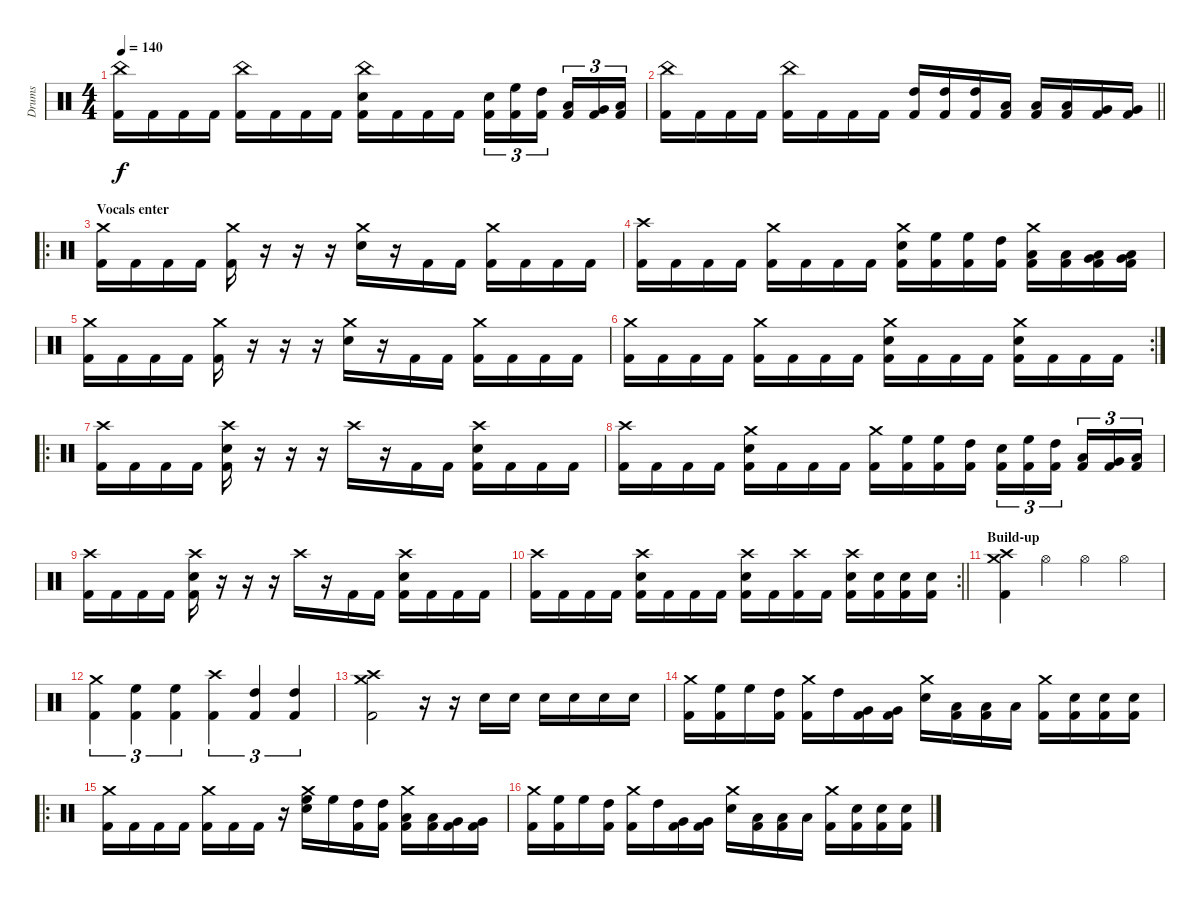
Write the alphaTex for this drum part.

\track ("Drums" "Drums") {mute instrument percussion}
\staff {score}
\articulation defaults
\ts (4 4)
\tempo 140
\clef neutral
\ks c
("China (hit)" "Kick (hit) 2").16{dy f} "Kick (hit) 2".16 "Kick (hit) 2".16 "Kick (hit) 2".16 ("China (hit)" "Kick (hit) 2").16 "Kick (hit) 2".16 "Kick (hit) 2".16 "Kick (hit) 2".16 ("China (hit)" "Electric Snare (hit)" "Kick (hit) 2").16 "Kick (hit) 2".16 "Kick (hit) 2".16 "Kick (hit) 2".16 ("Electric Snare (hit)" "Kick (hit) 2").16{tu (3 2)} ("High Floor Tom (hit)" "Kick (hit) 2").16{tu (3 2)} ("High Tom (hit)" "Kick (hit) 2").16{tu (3 2) beam splitsecondary} ("Low Tom (hit)" "Kick (hit) 2").16{tu (3 2)} ("Very Low Tom (hit)" "Kick (hit) 2").16{tu (3 2)} ("Low Floor Tom (hit)" "Kick (hit) 2").16{tu (3 2)} |
\barLineRight lightlight
("China (hit)" "Kick (hit) 2").16 "Kick (hit) 2".16 "Kick (hit) 2".16 "Kick (hit) 2".16 ("China (hit)" "Kick (hit) 2").16 "Kick (hit) 2".16 "Kick (hit) 2".16 "Kick (hit) 2".16 ("High Tom (hit)" "Kick (hit) 2").16 ("High Tom (hit)" "Kick (hit) 2").16 ("High Tom (hit)" "Kick (hit) 2").16 ("Low Tom (hit)" "Kick (hit) 2").16 ("Low Tom (hit)" "Kick (hit) 2").16 ("Low Tom (hit)" "Kick (hit) 2").16 ("Very Low Tom (hit)" "Kick (hit) 2").16 ("Very Low Tom (hit)" "Kick (hit) 2").16 |
\ro
\section ("" "Vocals enter")
("Crash medium (hit)" "Kick (hit) 2").16 "Kick (hit) 2".16 "Kick (hit) 2".16 "Kick (hit) 2".16 ("Crash medium (hit)" "Kick (hit) 2").16 r.16 r.16 r.16 ("Crash medium (hit)" "Electric Snare (hit)").16 r.16 "Kick (hit) 2".16 "Kick (hit) 2".16 ("Crash medium (hit)" "Kick (hit) 2").16 "Kick (hit) 2".16 "Kick (hit) 2".16 "Kick (hit) 2".16 |
("Crash high (hit)" "Kick (hit) 2").16 "Kick (hit) 2".16 "Kick (hit) 2".16 "Kick (hit) 2".16 ("Crash medium (hit)" "Kick (hit) 2").16 "Kick (hit) 2".16 "Kick (hit) 2".16 "Kick (hit) 2".16 ("Crash medium (hit)" "Electric Snare (hit)" "Kick (hit) 2").16 ("High Floor Tom (hit)" "Kick (hit) 2").16 ("High Floor Tom (hit)" "Kick (hit) 2").16 ("High Tom (hit)" "Kick (hit) 2").16 ("Crash medium (hit)" "Low Tom (hit)" "Kick (hit) 2").16 ("Low Tom (hit)" "Kick (hit) 2").16 ("Low Floor Tom (hit)" "Very Low Tom (hit)" "Kick (hit) 2").16 ("Low Floor Tom (hit)" "Very Low Tom (hit)" "Kick (hit) 2").16 |
("Crash medium (hit)" "Kick (hit) 2").16 "Kick (hit) 2".16 "Kick (hit) 2".16 "Kick (hit) 2".16 ("Crash medium (hit)" "Kick (hit) 2").16 r.16 r.16 r.16 ("Crash medium (hit)" "Electric Snare (hit)").16 r.16 "Kick (hit) 2".16 "Kick (hit) 2".16 ("Crash medium (hit)" "Kick (hit) 2").16 "Kick (hit) 2".16 "Kick (hit) 2".16 "Kick (hit) 2".16 |
\rc 2
("Crash medium (hit)" "Kick (hit) 2").16 "Kick (hit) 2".16 "Kick (hit) 2".16 "Kick (hit) 2".16 ("Crash medium (hit)" "Kick (hit) 2").16 "Kick (hit) 2".16 "Kick (hit) 2".16 "Kick (hit) 2".16 ("Crash medium (hit)" "Electric Snare (hit)" "Kick (hit) 2").16 "Kick (hit) 2".16 "Kick (hit) 2".16 "Kick (hit) 2".16 ("Crash medium (hit)" "Electric Snare (hit)" "Kick (hit) 2").16 "Kick (hit) 2".16 "Kick (hit) 2".16 "Kick (hit) 2".16 |
\ro
("Crash high (hit)" "Kick (hit) 2").16 "Kick (hit) 2".16 "Kick (hit) 2".16 "Kick (hit) 2".16 ("Crash high (hit)" "Electric Snare (hit)" "Kick (hit) 2").16 r.16 r.16 r.16 "Crash high (hit)".16 r.16 "Kick (hit) 2".16 "Kick (hit) 2".16 ("Crash high (hit)" "Electric Snare (hit)" "Kick (hit) 2").16 "Kick (hit) 2".16 "Kick (hit) 2".16 "Kick (hit) 2".16 |
("Crash high (hit)" "Kick (hit) 2").16 "Kick (hit) 2".16 "Kick (hit) 2".16 "Kick (hit) 2".16 ("Crash medium (hit)" "Electric Snare (hit)" "Kick (hit) 2").16 "Kick (hit) 2".16 "Kick (hit) 2".16 "Kick (hit) 2".16 ("Crash medium (hit)" "Kick (hit) 2").16 ("High Floor Tom (hit)" "Kick (hit) 2").16 ("High Floor Tom (hit)" "Kick (hit) 2").16 ("High Tom (hit)" "Kick (hit) 2").16 ("Electric Snare (hit)" "Kick (hit) 2").16{tu (3 2)} ("High Floor Tom (hit)" "Kick (hit) 2").16{tu (3 2)} ("High Tom (hit)" "Kick (hit) 2").16{tu (3 2) beam splitsecondary} ("Low Tom (hit)" "Kick (hit) 2").16{tu (3 2)} ("Very Low Tom (hit)" "Kick (hit) 2").16{tu (3 2)} ("Low Floor Tom (hit)" "Kick (hit) 2").16{tu (3 2)} |
("Crash high (hit)" "Kick (hit) 2").16 "Kick (hit) 2".16 "Kick (hit) 2".16 "Kick (hit) 2".16 ("Crash high (hit)" "Electric Snare (hit)" "Kick (hit) 2").16 r.16 r.16 r.16 "Crash high (hit)".16 r.16 "Kick (hit) 2".16 "Kick (hit) 2".16 ("Crash high (hit)" "Electric Snare (hit)" "Kick (hit) 2").16 "Kick (hit) 2".16 "Kick (hit) 2".16 "Kick (hit) 2".16 |
\rc 2
\barLineRight lightlight
("Crash high (hit)" "Kick (hit) 2").16 "Kick (hit) 2".16 "Kick (hit) 2".16 "Kick (hit) 2".16 ("Crash high (hit)" "Electric Snare (hit)" "Kick (hit) 2").16 "Kick (hit) 2".16 "Kick (hit) 2".16 "Kick (hit) 2".16 ("Crash high (hit)" "Electric Snare (hit)" "Kick (hit) 2").16 "Kick (hit) 2".16 ("Crash high (hit)" "Kick (hit) 2").16 "Kick (hit) 2".16 ("Crash high (hit)" "Electric Snare (hit)" "Kick (hit) 2").16 ("Electric Snare (hit)" "Kick (hit) 2").16 ("Electric Snare (hit)" "Kick (hit) 2").16 ("Electric Snare (hit)" "Kick (hit) 2").16 |
\section ("" "Build-up")
("Crash high (hit)" "Crash medium (hit)" "Kick (hit) 2").4 "Hi-Hat (open)".4 "Hi-Hat (open)".4 "Hi-Hat (open)".4 |
("Crash medium (hit)" "Kick (hit) 2").4{tu (3 2)} ("High Floor Tom (hit)" "Kick (hit) 2").4{tu (3 2)} ("High Floor Tom (hit)" "Kick (hit) 2").4{tu (3 2)} ("Crash high (hit)" "Kick (hit) 2").4{tu (3 2)} ("High Tom (hit)" "Kick (hit) 2").4{tu (3 2)} ("High Tom (hit)" "Kick (hit) 2").4{tu (3 2)} |
("Crash high (hit)" "Crash medium (hit)" "Kick (hit) 2").2 r.16 r.16 "Electric Snare (hit)".16 "Electric Snare (hit)".16 "Electric Snare (hit)".16 "Electric Snare (hit)".16 "Electric Snare (hit)".16 "Electric Snare (hit)".16 |
("Crash medium (hit)" "Kick (hit) 2").16 ("High Floor Tom (hit)" "Kick (hit) 2").16 "High Floor Tom (hit)".16 ("High Tom (hit)" "Kick (hit) 2").16 ("Crash medium (hit)" "Kick (hit) 2").16 "High Tom (hit)".16 ("Very Low Tom (hit)" "Kick (hit) 2").16 ("Very Low Tom (hit)" "Kick (hit) 2").16 ("Crash medium (hit)" "Electric Snare (hit)").16 ("Low Floor Tom (hit)" "Kick (hit) 2").16 ("Low Floor Tom (hit)" "Kick (hit) 2").16 "Low Floor Tom (hit)".16 ("Crash medium (hit)" "Kick (hit) 2").16 ("Electric Snare (hit)" "Kick (hit) 2").16 ("Electric Snare (hit)" "Kick (hit) 2").16 ("Electric Snare (hit)" "Kick (hit) 2").16 |
\ro
("Crash medium (hit)" "Kick (hit) 2").16 "Kick (hit) 2".16 "Kick (hit) 2".16 "Kick (hit) 2".16 ("Crash medium (hit)" "Kick (hit) 2").16 "Kick (hit) 2".16 "Kick (hit) 2".16 r.16 ("Crash medium (hit)" "High Floor Tom (hit)" "Electric Snare (hit)").16 "High Floor Tom (hit)".16 ("High Tom (hit)" "Kick (hit) 2").16 ("High Tom (hit)" "Kick (hit) 2").16 ("Crash medium (hit)" "Low Tom (hit)" "Kick (hit) 2").16 ("Low Tom (hit)" "Kick (hit) 2").16 ("Very Low Tom (hit)" "Kick (hit) 2").16 ("Very Low Tom (hit)" "Kick (hit) 2").16 |
("Crash medium (hit)" "Kick (hit) 2").16 ("High Floor Tom (hit)" "Kick (hit) 2").16 "High Floor Tom (hit)".16 ("High Tom (hit)" "Kick (hit) 2").16 ("Crash medium (hit)" "Kick (hit) 2").16 "High Tom (hit)".16 ("Very Low Tom (hit)" "Kick (hit) 2").16 ("Very Low Tom (hit)" "Kick (hit) 2").16 ("Crash medium (hit)" "Electric Snare (hit)").16 ("Low Floor Tom (hit)" "Kick (hit) 2").16 ("Low Floor Tom (hit)" "Kick (hit) 2").16 "Low Floor Tom (hit)".16 ("Crash medium (hit)" "Kick (hit) 2").16 ("Electric Snare (hit)" "Kick (hit) 2").16 ("Electric Snare (hit)" "Kick (hit) 2").16 ("Electric Snare (hit)" "Kick (hit) 2").16
